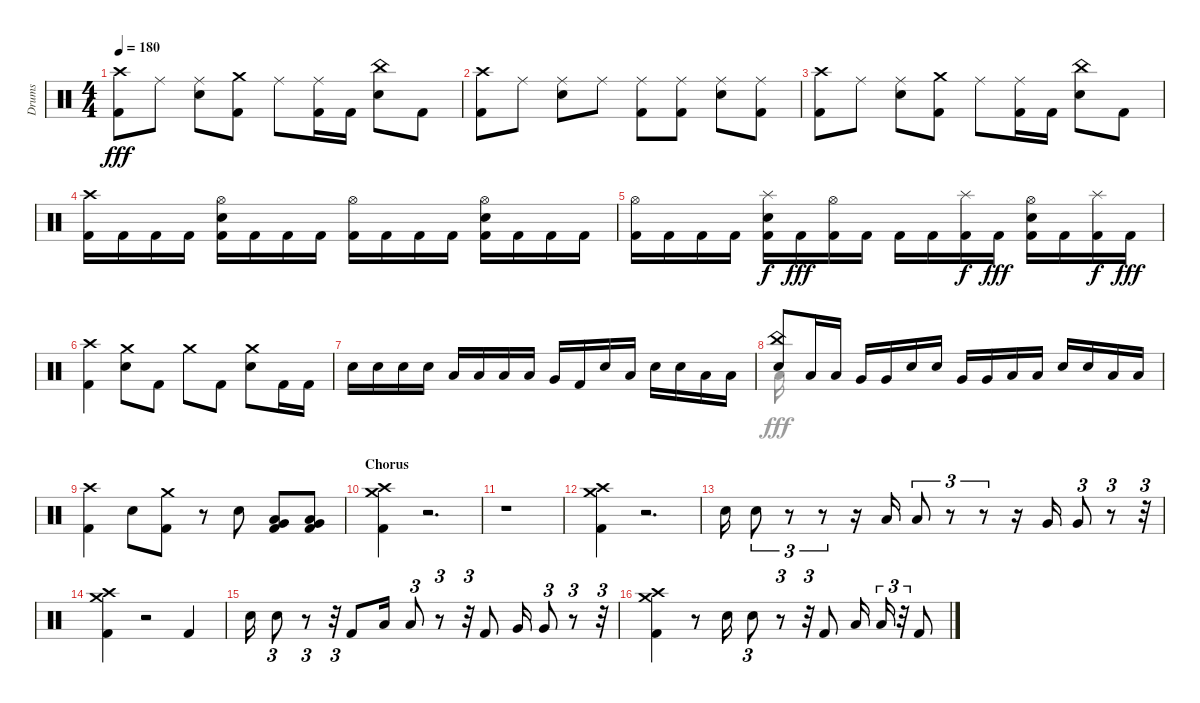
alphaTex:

\track ("Drums" "Drums") {instrument percussion}
\staff {score}
\articulation defaults
\voice
\ts (4 4)
\tempo 180
\clef neutral
\ks aminor
("Kick (hit) 2" "Crash high (hit)").8{dy fff} "Ride (middle)".8 ("Snare (hit) 2" "Ride (middle)").8 ("Crash medium (hit)" "Kick (hit) 2").8 "Ride (middle)".8 ("Kick (hit) 2" "Ride (middle)").16 "Kick (hit) 2".16 ("China (hit)" "Snare (hit) 2").8 "Kick (hit) 2".8 |
("Kick (hit) 2" "Crash high (hit)").8 "Ride (middle)".8 ("Ride (middle)" "Snare (hit) 2").8 "Ride (middle)".8 ("Kick (hit) 2" "Ride (middle)").8 ("Kick (hit) 2" "Ride (middle)").8 ("Ride (middle)" "Snare (hit) 2").8 ("Kick (hit) 2" "Ride (middle)").8 |
("Kick (hit) 2" "Crash high (hit)").8 "Ride (middle)".8 ("Ride (middle)" "Snare (hit) 2").8 ("Kick (hit) 2" "Crash medium (hit)").8 "Ride (middle)".8 ("Ride (middle)" "Kick (hit) 2").16 "Kick (hit) 2".16 ("Snare (hit) 2" "China (hit)").8 "Kick (hit) 2".8 |
("Kick (hit) 2" "Crash high (hit)").16 "Kick (hit) 2".16 "Kick (hit) 2".16 "Kick (hit) 2".16 ("Kick (hit) 2" "Snare (hit) 2" "Hi-Hat (open)").16 "Kick (hit) 2".16 "Kick (hit) 2".16 "Kick (hit) 2".16 ("Kick (hit) 2" "Hi-Hat (open)").16 "Kick (hit) 2".16 "Kick (hit) 2".16 "Kick (hit) 2".16 ("Kick (hit) 2" "Snare (hit) 2" "Hi-Hat (open)").16 "Kick (hit) 2".16 "Kick (hit) 2".16 "Kick (hit) 2".16 |
("Kick (hit) 2" "Hi-Hat (open)").16 "Kick (hit) 2".16 "Kick (hit) 2".16 "Kick (hit) 2".16 ("Splash (hit)" "Kick (hit) 2" "Snare (hit) 2").16{dy f} "Kick (hit) 2".16{dy fff} ("Kick (hit) 2" "Hi-Hat (open)").16 "Kick (hit) 2".16 "Kick (hit) 2".16 "Kick (hit) 2".16 ("Kick (hit) 2" "Splash (hit)").16{dy f} "Kick (hit) 2".16{dy fff} ("Kick (hit) 2" "Snare (hit) 2" "Hi-Hat (open)").16 "Kick (hit) 2".16 ("Splash (hit)" "Kick (hit) 2").16{dy f} "Kick (hit) 2".16{dy fff} |
("Crash high (hit)" "Kick (hit) 2").4 ("Crash medium (hit)" "Snare (hit) 2").8 "Kick (hit) 2".8 "Crash medium (hit)".8 "Kick (hit) 2".8 ("Crash medium (hit)" "Snare (hit) 2").8 "Kick (hit) 2".16 "Kick (hit) 2".16 |
"Snare (hit) 2".16 "Snare (hit) 2".16 "Snare (hit) 2".16 "Snare (hit) 2".16 "Low Tom (hit)".16 "Low Tom (hit)".16 "Low Tom (hit)".16 "Low Tom (hit)".16 "Very Low Tom (hit)".16 "Kick (hit) 2".16 "Snare (hit) 2".16 "Low Floor Tom (hit)".16 "Snare (hit) 2".16 "Snare (hit) 2".16 "Low Floor Tom (hit)".16 "Low Floor Tom (hit)".16 |
("Snare (hit) 2" "China (hit)").8 "Low Tom (hit)".16 "Low Tom (hit)".16 "Very Low Tom (hit)".16 "Very Low Tom (hit)".16 "Snare (hit) 2".16 "Snare (hit) 2".16 "Very Low Tom (hit)".16 "Very Low Tom (hit)".16 "Low Floor Tom (hit)".16 "Low Floor Tom (hit)".16 "Snare (hit) 2".16 "Snare (hit) 2".16 "Low Floor Tom (hit)".16 "Low Floor Tom (hit)".16 |
("Crash high (hit)" "Kick (hit) 2").4 "Snare (hit) 2".8 ("Kick (hit) 2" "Crash medium (hit)").8 r.8 "Snare (hit) 2".8 ("Kick (hit) 2" "Low Floor Tom (hit)" "Very Low Tom (hit)").8 ("Kick (hit) 2" "Low Floor Tom (hit)" "Very Low Tom (hit)").8 |
\section ("" "Chorus")
("Crash medium (hit)" "Kick (hit) 2" "Crash high (hit)").4 r.2{d} |
r.1 |
("Crash high (hit)" "Crash medium (hit)" "Kick (hit) 2").4 r.2{d} |
"Snare (hit) 2".16 "Snare (hit) 2".8{tu (3 2)} r.8{tu (3 2)} r.8{tu (3 2)} r.16 "Low Tom (hit)".16 "Low Tom (hit)".8{tu (3 2)} r.8{tu (3 2)} r.8{tu (3 2)} r.16 "Very Low Tom (hit)".16 "Very Low Tom (hit)".8{tu (3 2)} r.8{tu (3 2)} r.32{tu (3 2)} |
("Crash high (hit)" "Crash medium (hit)" "Kick (hit) 2").4 r.2 "Kick (hit) 2".4 |
"Snare (hit) 2".16 "Snare (hit) 2".8{tu (3 2)} r.8{tu (3 2)} r.32{tu (3 2)} "Kick (hit) 2".8 "Low Tom (hit)".16 "Low Tom (hit)".8{tu (3 2)} r.8{tu (3 2)} r.32{tu (3 2)} "Kick (hit) 2".8 "Very Low Tom (hit)".16 "Very Low Tom (hit)".8{tu (3 2)} r.8{tu (3 2)} r.32{tu (3 2)} |
("Crash medium (hit)" "Kick (hit) 2" "Crash high (hit)").4 r.8 "Snare (hit) 2".16 "Snare (hit) 2".8{tu (3 2)} r.8{tu (3 2)} r.32{tu (3 2)} "Kick (hit) 2".8 "Low Floor Tom (hit)".16 "Low Floor Tom (hit)".16{tu (3 2)} r.32{tu (3 2)} "Kick (hit) 2".8
\voice
\clef neutral
\ottava regular
\simile none
\ks aminor
|
|
|
|
|
|
|
"Low Floor Tom (hit)".16 |
|
|
|
|
|
|
|
